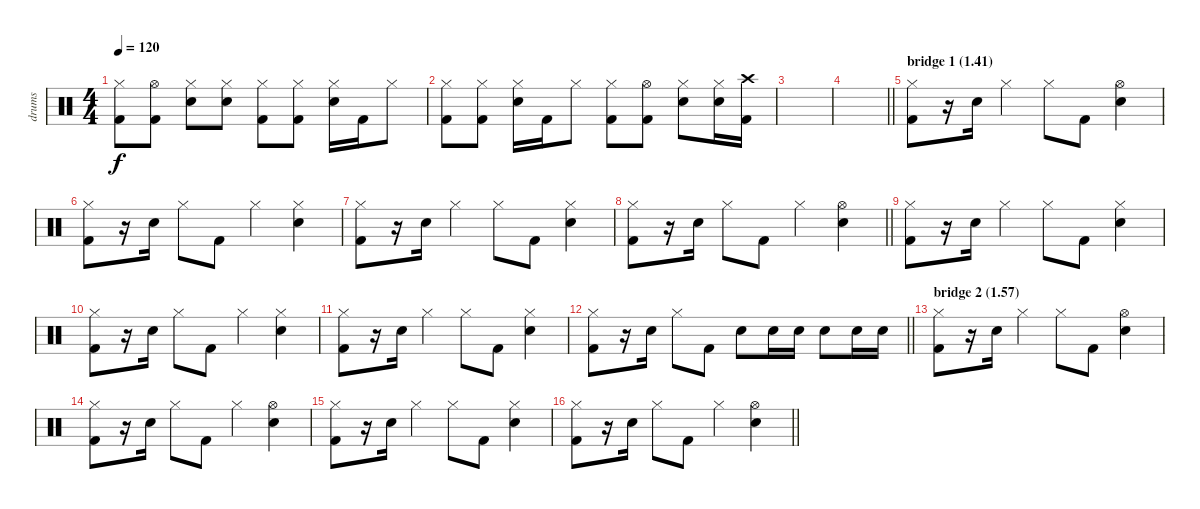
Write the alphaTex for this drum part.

\track ("drums" "drums") {instrument percussion}
\staff {score}
\articulation defaults
\ts (4 4)
\tempo 120
\clef neutral
\ks c
("Hi-Hat (closed)" "Kick (hit) 2").8{dy f} ("Hi-Hat (open)" "Kick (hit) 2").8 ("Hi-Hat (closed)" "Electric Snare (hit)").8 ("Hi-Hat (closed)" "Electric Snare (hit)").8 ("Hi-Hat (closed)" "Kick (hit) 2").8 ("Hi-Hat (closed)" "Kick (hit) 2").8 ("Hi-Hat (closed)" "Electric Snare (hit)").16 "Kick (hit) 2".16 "Hi-Hat (closed)".8 |
("Hi-Hat (closed)" "Kick (hit) 2").8 ("Hi-Hat (closed)" "Kick (hit) 2").8 ("Hi-Hat (closed)" "Electric Snare (hit)").16 "Kick (hit) 2".16 "Hi-Hat (closed)".8 ("Hi-Hat (closed)" "Kick (hit) 2").8 ("Hi-Hat (open)" "Kick (hit) 2").8 ("Hi-Hat (closed)" "Electric Snare (hit)").8 ("Hi-Hat (closed)" "Electric Snare (hit)").16 ("Crash high (hit)" "Kick (hit) 2").16 |
|
\barLineRight lightlight
|
\section ("" "bridge 1 (1.41)")
("Hi-Hat (closed)" "Kick (hit) 2").8 r.16 "Electric Snare (hit)".16 "Hi-Hat (closed)".4 "Hi-Hat (closed)".8 "Kick (hit) 2".8 ("Hi-Hat (open)" "Electric Snare (hit)").4 |
("Hi-Hat (closed)" "Kick (hit) 2").8 r.16 "Electric Snare (hit)".16 "Hi-Hat (closed)".8 "Kick (hit) 2".8 "Hi-Hat (closed)".4 ("Hi-Hat (closed)" "Electric Snare (hit)").4 |
("Hi-Hat (closed)" "Kick (hit) 2").8 r.16 "Electric Snare (hit)".16 "Hi-Hat (closed)".4 "Hi-Hat (closed)".8 "Kick (hit) 2".8 ("Hi-Hat (closed)" "Electric Snare (hit)").4 |
\barLineRight lightlight
("Hi-Hat (closed)" "Kick (hit) 2").8 r.16 "Electric Snare (hit)".16 "Hi-Hat (closed)".8 "Kick (hit) 2".8 "Hi-Hat (closed)".4 ("Hi-Hat (open)" "Electric Snare (hit)").4 |
("Hi-Hat (closed)" "Kick (hit) 2").8 r.16 "Electric Snare (hit)".16 "Hi-Hat (closed)".4 "Hi-Hat (closed)".8 "Kick (hit) 2".8 ("Hi-Hat (closed)" "Electric Snare (hit)").4 |
("Hi-Hat (closed)" "Kick (hit) 2").8 r.16 "Electric Snare (hit)".16 "Hi-Hat (closed)".8 "Kick (hit) 2".8 "Hi-Hat (closed)".4 ("Hi-Hat (closed)" "Electric Snare (hit)").4 |
("Hi-Hat (closed)" "Kick (hit) 2").8 r.16 "Electric Snare (hit)".16 "Hi-Hat (closed)".4 "Hi-Hat (closed)".8 "Kick (hit) 2".8 ("Hi-Hat (closed)" "Electric Snare (hit)").4 |
\barLineRight lightlight
("Hi-Hat (closed)" "Kick (hit) 2").8 r.16 "Electric Snare (hit)".16 "Hi-Hat (closed)".8 "Kick (hit) 2".8 "Electric Snare (hit)".8 "Electric Snare (hit)".16 "Electric Snare (hit)".16 "Electric Snare (hit)".8 "Electric Snare (hit)".16 "Electric Snare (hit)".16 |
\section ("" "bridge 2 (1.57)")
("Hi-Hat (closed)" "Kick (hit) 2").8 r.16 "Electric Snare (hit)".16 "Hi-Hat (closed)".4 "Hi-Hat (closed)".8 "Kick (hit) 2".8 ("Hi-Hat (open)" "Electric Snare (hit)").4 |
("Hi-Hat (closed)" "Kick (hit) 2").8 r.16 "Electric Snare (hit)".16 "Hi-Hat (closed)".8 "Kick (hit) 2".8 "Hi-Hat (closed)".4 ("Hi-Hat (open)" "Electric Snare (hit)").4 |
("Hi-Hat (closed)" "Kick (hit) 2").8 r.16 "Electric Snare (hit)".16 "Hi-Hat (closed)".4 "Hi-Hat (closed)".8 "Kick (hit) 2".8 ("Hi-Hat (closed)" "Electric Snare (hit)").4 |
\barLineRight lightlight
("Hi-Hat (closed)" "Kick (hit) 2").8 r.16 "Electric Snare (hit)".16 "Hi-Hat (closed)".8 "Kick (hit) 2".8 "Hi-Hat (closed)".4 ("Hi-Hat (open)" "Electric Snare (hit)").4
